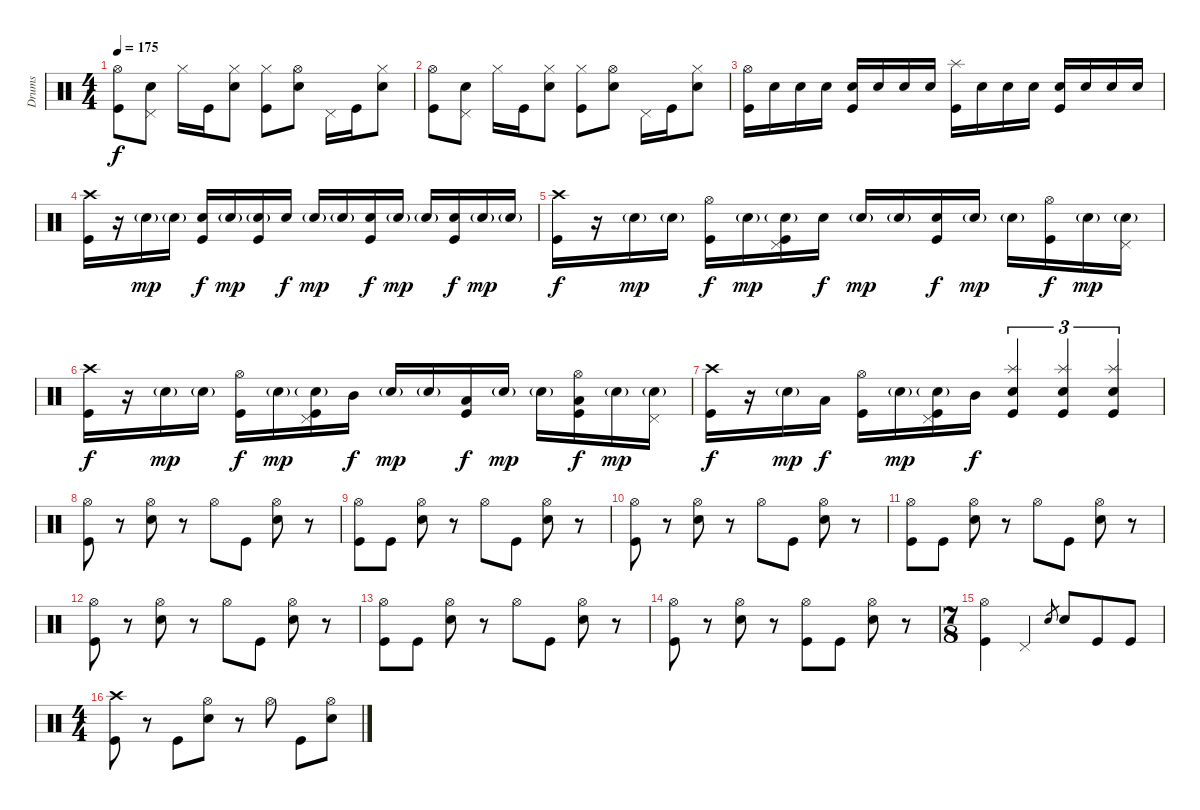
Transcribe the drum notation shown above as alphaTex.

\track ("Drums" "Drums") {instrument percussion}
\staff {score}
\articulation defaults
\ts (4 4)
\tempo 175
\clef neutral
\ks c
("Hi-Hat (open)" "Kick (hit)").8{dy f} ("Pedal Hi-Hat (hit)" "Electric Snare (hit)").8 "Hi-Hat (closed)".16 "Kick (hit)".16 ("Hi-Hat (closed)" "Electric Snare (hit)").8 ("Hi-Hat (closed)" "Kick (hit)").8 ("Hi-Hat (open)" "Electric Snare (hit)").8 "Pedal Hi-Hat (hit)".16 "Kick (hit)".16 ("Hi-Hat (closed)" "Electric Snare (hit)").8 |
("Hi-Hat (open)" "Kick (hit)").8 ("Pedal Hi-Hat (hit)" "Electric Snare (hit)").8 "Hi-Hat (closed)".16 "Kick (hit)".16 ("Hi-Hat (closed)" "Electric Snare (hit)").8 ("Hi-Hat (closed)" "Kick (hit)").8 ("Hi-Hat (open)" "Electric Snare (hit)").8 "Pedal Hi-Hat (hit)".16 "Kick (hit)".16 ("Hi-Hat (closed)" "Electric Snare (hit)").8 |
("Hi-Hat (open)" "Kick (hit)").16 "Electric Snare (hit)".16 "Electric Snare (hit)".16 "Electric Snare (hit)".16 ("Electric Snare (hit)" "Kick (hit)").16 "Electric Snare (hit)".16 "Electric Snare (hit)".16 "Electric Snare (hit)".16 ("Splash (hit)" "Kick (hit)").16 "Electric Snare (hit)".16 "Electric Snare (hit)".16 "Electric Snare (hit)".16 ("Electric Snare (hit)" "Kick (hit)").16 "Electric Snare (hit)".16 "Electric Snare (hit)".16 "Electric Snare (hit)".16 |
("Crash high (hit)" "Kick (hit)").16 r.16 "Electric Snare (hit)"{g}.16{dy mp} "Electric Snare (hit)"{g}.16 ("Electric Snare (hit)" "Kick (hit)").16{dy f} "Electric Snare (hit)"{g}.16{dy mp} ("Electric Snare (hit)"{g} "Kick (hit)").16 "Electric Snare (hit)".16{dy f} "Electric Snare (hit)"{g}.16{dy mp} "Electric Snare (hit)"{g}.16 ("Electric Snare (hit)" "Kick (hit)").16{dy f} "Electric Snare (hit)"{g}.16{dy mp} "Electric Snare (hit)"{g}.16 ("Electric Snare (hit)" "Kick (hit)").16{dy f} "Electric Snare (hit)"{g}.16{dy mp} "Electric Snare (hit)"{g}.16 |
("Crash high (hit)" "Kick (hit)").16{dy f} r.16 "Electric Snare (hit)"{g}.16{dy mp} "Electric Snare (hit)"{g}.16 ("Hi-Hat (open)" "Kick (hit)").16{dy f} "Electric Snare (hit)"{g}.16{dy mp} ("Pedal Hi-Hat (hit)" "Electric Snare (hit)"{g} "Kick (hit)").16 "Electric Snare (hit)".16{dy f} "Electric Snare (hit)"{g}.16{dy mp} "Electric Snare (hit)"{g}.16 ("Electric Snare (hit)" "Kick (hit)").16{dy f} "Electric Snare (hit)"{g}.16{dy mp} "Electric Snare (hit)"{g}.16 ("Hi-Hat (open)" "Kick (hit)").16{dy f} "Electric Snare (hit)"{g}.16{dy mp} ("Pedal Hi-Hat (hit)" "Electric Snare (hit)"{g}).16 |
("Crash high (hit)" "Kick (hit)").16{dy f} r.16 "Electric Snare (hit)"{g}.16{dy mp} "Electric Snare (hit)"{g}.16 ("Hi-Hat (open)" "Kick (hit)").16{dy f} "Electric Snare (hit)"{g}.16{dy mp} ("Pedal Hi-Hat (hit)" "Electric Snare (hit)"{g} "Kick (hit)").16 "Mid Tom (hit)".16{dy f} "Electric Snare (hit)"{g}.16{dy mp} "Electric Snare (hit)"{g}.16 ("Low Tom (hit)" "Kick (hit)").16{dy f} "Electric Snare (hit)"{g}.16{dy mp} "Electric Snare (hit)"{g}.16 ("Hi-Hat (open)" "Low Tom (hit)" "Kick (hit)").16{dy f} "Electric Snare (hit)"{g}.16{dy mp} ("Pedal Hi-Hat (hit)" "Electric Snare (hit)"{g}).16 |
("Crash high (hit)" "Kick (hit)").16{dy f} r.16 "Electric Snare (hit)"{g}.16{dy mp} "Low Tom (hit)".16{dy f} ("Hi-Hat (open)" "Kick (hit)").16 "Electric Snare (hit)"{g}.16{dy mp} ("Pedal Hi-Hat (hit)" "Electric Snare (hit)"{g} "Kick (hit)").16 "Mid Tom (hit)".16{dy f} ("Splash (hit)" "Snare (hit) 2" "Kick (hit)").4{tu (3 2)} ("Splash (hit)" "Snare (hit) 2" "Kick (hit)").4{tu (3 2)} ("Splash (hit)" "Snare (hit) 2" "Kick (hit)").4{tu (3 2)} |
("Hi-Hat (open)" "Kick (hit)").8 r.8 ("Hi-Hat (open)" "Electric Snare (hit)").8 r.8 "Hi-Hat (open)".8 "Kick (hit)".8 ("Hi-Hat (open)" "Electric Snare (hit)").8 r.8 |
("Hi-Hat (open)" "Kick (hit)").8 "Kick (hit)".8 ("Hi-Hat (open)" "Electric Snare (hit)").8 r.8 "Hi-Hat (open)".8 "Kick (hit)".8 ("Hi-Hat (open)" "Electric Snare (hit)").8 r.8 |
("Hi-Hat (open)" "Kick (hit)").8 r.8 ("Hi-Hat (open)" "Electric Snare (hit)").8 r.8 "Hi-Hat (open)".8 "Kick (hit)".8 ("Hi-Hat (open)" "Electric Snare (hit)").8 r.8 |
("Hi-Hat (open)" "Kick (hit)").8 "Kick (hit)".8 ("Hi-Hat (open)" "Electric Snare (hit)").8 r.8 "Hi-Hat (open)".8 "Kick (hit)".8 ("Hi-Hat (open)" "Electric Snare (hit)").8 r.8 |
("Hi-Hat (open)" "Kick (hit)").8 r.8 ("Hi-Hat (open)" "Electric Snare (hit)").8 r.8 "Hi-Hat (open)".8 "Kick (hit)".8 ("Hi-Hat (open)" "Electric Snare (hit)").8 r.8 |
("Hi-Hat (open)" "Kick (hit)").8 "Kick (hit)".8 ("Hi-Hat (open)" "Electric Snare (hit)").8 r.8 "Hi-Hat (open)".8 "Kick (hit)".8 ("Hi-Hat (open)" "Electric Snare (hit)").8 r.8 |
("Hi-Hat (open)" "Kick (hit)").8 r.8 ("Hi-Hat (open)" "Electric Snare (hit)").8 r.8 ("Hi-Hat (open)" "Kick (hit)").8 "Kick (hit)".8 ("Hi-Hat (open)" "Electric Snare (hit)").8 r.8 |
\ts (7 8)
("Hi-Hat (open)" "Kick (hit)").4 "Pedal Hi-Hat (hit)".4 "Snare (hit) 2".8{gr} "Snare (hit) 2".8 "Kick (hit)".8 "Kick (hit)".8 |
\ts (4 4)
("Crash high (hit)" "Kick (hit)").8 r.8 "Kick (hit)".8 ("Hi-Hat (open)" "Electric Snare (hit)").8 r.8 "Hi-Hat (open)".8 "Kick (hit)".8 ("Hi-Hat (open)" "Electric Snare (hit)").8
